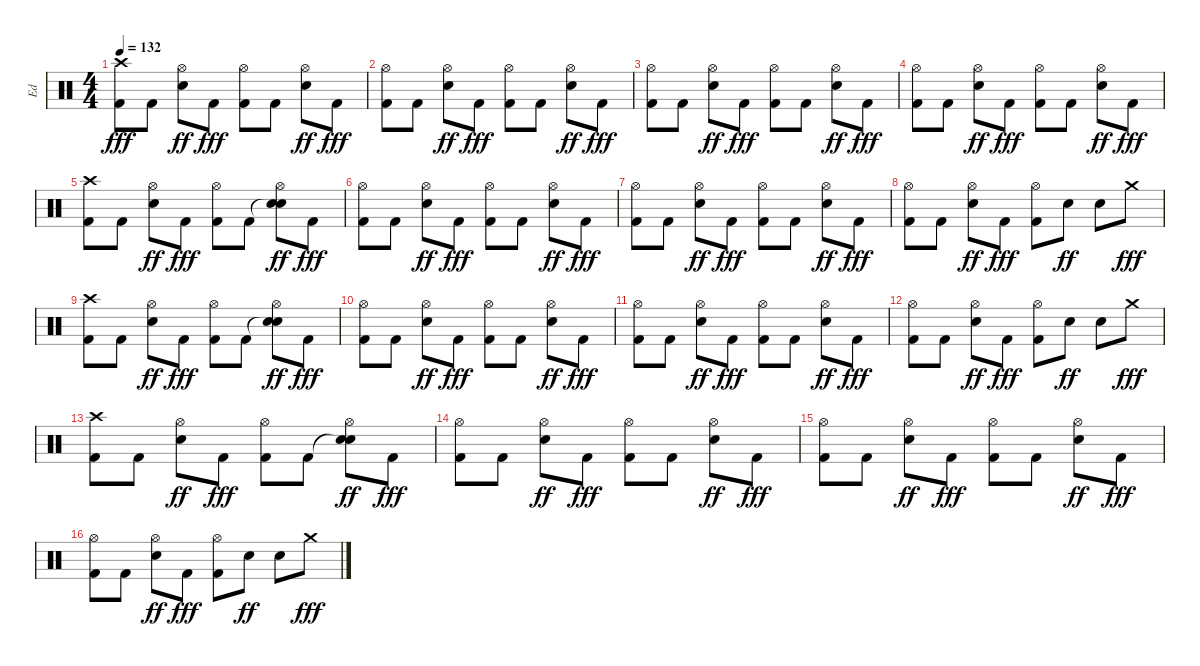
\track ("Ed" "Ed") {instrument percussion}
\staff {score}
\articulation defaults
\ts (4 4)
\tempo 132
\clef neutral
\ks c
("Crash high (hit)" "Kick (hit) 2").8{dy fff} "Kick (hit) 2".8 ("Hi-Hat (open)" "Electric Snare (hit)").8{dy ff} "Kick (hit) 2".8{dy fff} ("Hi-Hat (open)" "Kick (hit) 2").8 "Kick (hit) 2".8 ("Hi-Hat (open)" "Electric Snare (hit)").8{dy ff} "Kick (hit) 2".8{dy fff} |
("Hi-Hat (open)" "Kick (hit) 2").8 "Kick (hit) 2".8 ("Hi-Hat (open)" "Electric Snare (hit)").8{dy ff} "Kick (hit) 2".8{dy fff} ("Hi-Hat (open)" "Kick (hit) 2").8 "Kick (hit) 2".8 ("Hi-Hat (open)" "Electric Snare (hit)").8{dy ff} "Kick (hit) 2".8{dy fff} |
("Hi-Hat (open)" "Kick (hit) 2").8 "Kick (hit) 2".8 ("Hi-Hat (open)" "Electric Snare (hit)").8{dy ff} "Kick (hit) 2".8{dy fff} ("Hi-Hat (open)" "Kick (hit) 2").8 "Kick (hit) 2".8 ("Hi-Hat (open)" "Electric Snare (hit)").8{dy ff} "Kick (hit) 2".8{dy fff} |
("Hi-Hat (open)" "Kick (hit) 2").8 "Kick (hit) 2".8 ("Hi-Hat (open)" "Electric Snare (hit)").8{dy ff} "Kick (hit) 2".8{dy fff} ("Hi-Hat (open)" "Kick (hit) 2").8 "Kick (hit) 2".8 ("Hi-Hat (open)" "Electric Snare (hit)").8{dy ff} "Kick (hit) 2".8{dy fff} |
("Crash high (hit)" "Kick (hit) 2").8 "Kick (hit) 2".8 ("Hi-Hat (open)" "Electric Snare (hit)").8{dy ff} "Kick (hit) 2".8{dy fff} ("Hi-Hat (open)" "Kick (hit) 2").8 "Kick (hit) 2".8 ("Snare (hit)"{t} "Hi-Hat (open)" "Electric Snare (hit)").8{dy ff} "Kick (hit) 2".8{dy fff} |
("Hi-Hat (open)" "Kick (hit) 2").8 "Kick (hit) 2".8 ("Hi-Hat (open)" "Electric Snare (hit)").8{dy ff} "Kick (hit) 2".8{dy fff} ("Hi-Hat (open)" "Kick (hit) 2").8 "Kick (hit) 2".8 ("Hi-Hat (open)" "Electric Snare (hit)").8{dy ff} "Kick (hit) 2".8{dy fff} |
("Hi-Hat (open)" "Kick (hit) 2").8 "Kick (hit) 2".8 ("Hi-Hat (open)" "Electric Snare (hit)").8{dy ff} "Kick (hit) 2".8{dy fff} ("Hi-Hat (open)" "Kick (hit) 2").8 "Kick (hit) 2".8 ("Hi-Hat (open)" "Electric Snare (hit)").8{dy ff} "Kick (hit) 2".8{dy fff} |
("Hi-Hat (open)" "Kick (hit) 2").8 "Kick (hit) 2".8 ("Hi-Hat (open)" "Electric Snare (hit)").8{dy ff} "Kick (hit) 2".8{dy fff} ("Hi-Hat (open)" "Kick (hit) 2").8 "Electric Snare (hit)".8{dy ff} "Electric Snare (hit)".8 "Crash medium (hit)".8{dy fff} |
("Crash high (hit)" "Kick (hit) 2").8 "Kick (hit) 2".8 ("Hi-Hat (open)" "Electric Snare (hit)").8{dy ff} "Kick (hit) 2".8{dy fff} ("Hi-Hat (open)" "Kick (hit) 2").8 "Kick (hit) 2".8 ("Snare (hit)"{t} "Hi-Hat (open)" "Electric Snare (hit)").8{dy ff} "Kick (hit) 2".8{dy fff} |
("Hi-Hat (open)" "Kick (hit) 2").8 "Kick (hit) 2".8 ("Hi-Hat (open)" "Electric Snare (hit)").8{dy ff} "Kick (hit) 2".8{dy fff} ("Hi-Hat (open)" "Kick (hit) 2").8 "Kick (hit) 2".8 ("Hi-Hat (open)" "Electric Snare (hit)").8{dy ff} "Kick (hit) 2".8{dy fff} |
("Hi-Hat (open)" "Kick (hit) 2").8 "Kick (hit) 2".8 ("Hi-Hat (open)" "Electric Snare (hit)").8{dy ff} "Kick (hit) 2".8{dy fff} ("Hi-Hat (open)" "Kick (hit) 2").8 "Kick (hit) 2".8 ("Hi-Hat (open)" "Electric Snare (hit)").8{dy ff} "Kick (hit) 2".8{dy fff} |
("Hi-Hat (open)" "Kick (hit) 2").8 "Kick (hit) 2".8 ("Hi-Hat (open)" "Electric Snare (hit)").8{dy ff} "Kick (hit) 2".8{dy fff} ("Hi-Hat (open)" "Kick (hit) 2").8 "Electric Snare (hit)".8{dy ff} "Electric Snare (hit)".8 "Crash medium (hit)".8{dy fff} |
("Crash high (hit)" "Kick (hit) 2").8 "Kick (hit) 2".8 ("Hi-Hat (open)" "Electric Snare (hit)").8{dy ff} "Kick (hit) 2".8{dy fff} ("Hi-Hat (open)" "Kick (hit) 2").8 "Kick (hit) 2".8 ("Snare (hit)"{t} "Hi-Hat (open)" "Electric Snare (hit)").8{dy ff} "Kick (hit) 2".8{dy fff} |
("Hi-Hat (open)" "Kick (hit) 2").8 "Kick (hit) 2".8 ("Hi-Hat (open)" "Electric Snare (hit)").8{dy ff} "Kick (hit) 2".8{dy fff} ("Hi-Hat (open)" "Kick (hit) 2").8 "Kick (hit) 2".8 ("Hi-Hat (open)" "Electric Snare (hit)").8{dy ff} "Kick (hit) 2".8{dy fff} |
("Hi-Hat (open)" "Kick (hit) 2").8 "Kick (hit) 2".8 ("Hi-Hat (open)" "Electric Snare (hit)").8{dy ff} "Kick (hit) 2".8{dy fff} ("Hi-Hat (open)" "Kick (hit) 2").8 "Kick (hit) 2".8 ("Hi-Hat (open)" "Electric Snare (hit)").8{dy ff} "Kick (hit) 2".8{dy fff} |
("Hi-Hat (open)" "Kick (hit) 2").8 "Kick (hit) 2".8 ("Hi-Hat (open)" "Electric Snare (hit)").8{dy ff} "Kick (hit) 2".8{dy fff} ("Hi-Hat (open)" "Kick (hit) 2").8 "Electric Snare (hit)".8{dy ff} "Electric Snare (hit)".8 "Crash medium (hit)".8{dy fff}
